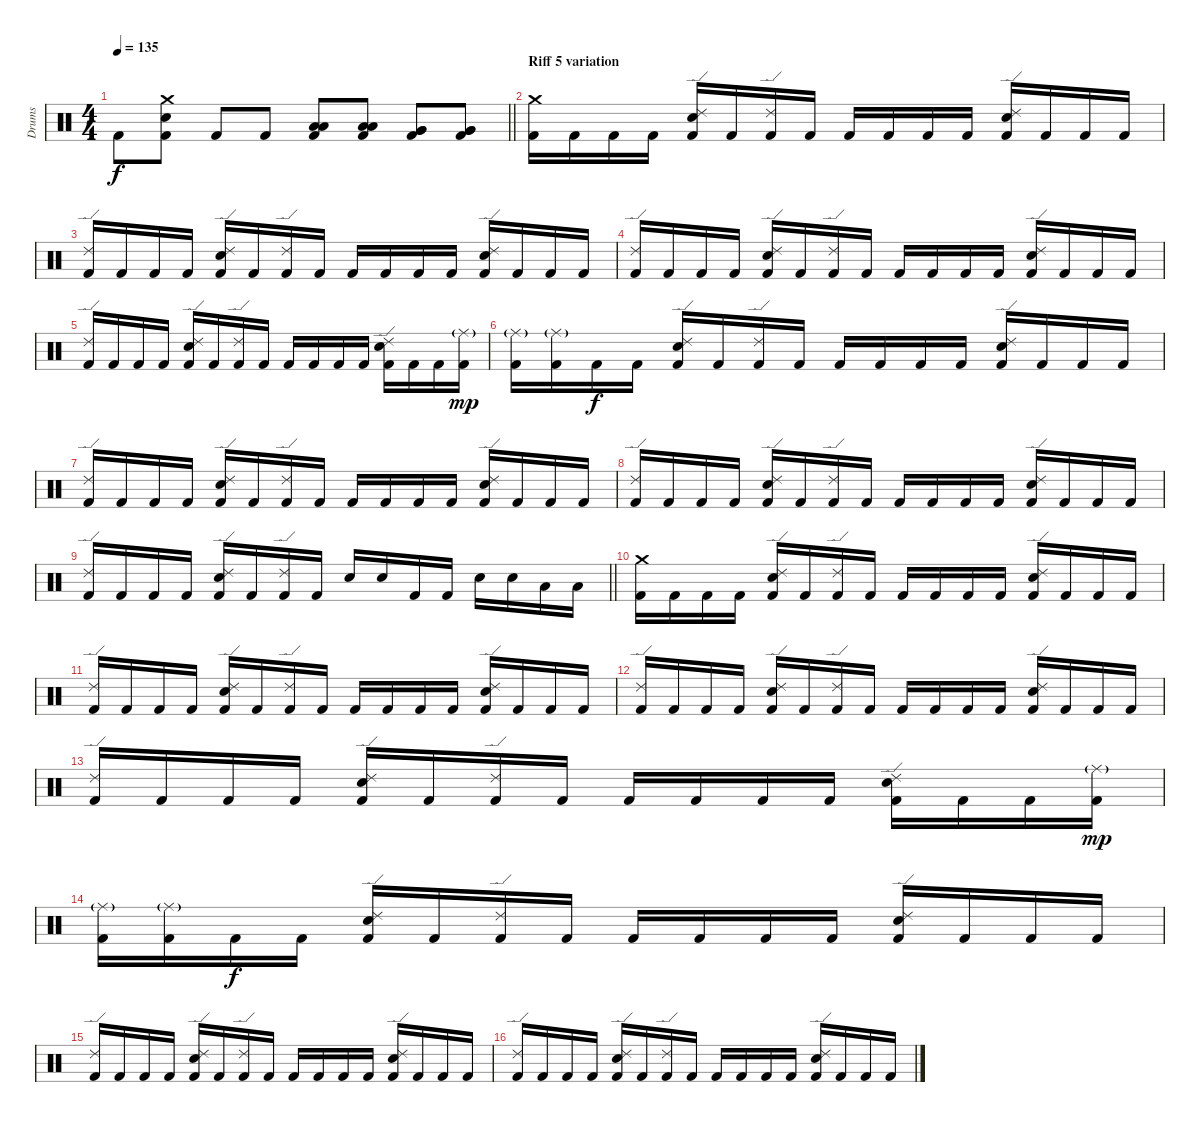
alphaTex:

\track ("Drums" "Drums") {instrument percussion}
\staff {score}
\articulation defaults
\ts (4 4)
\tempo 135
\clef neutral
\barLineRight lightlight
\ks c "Kick (hit) 2".8{dy f}
("Kick (hit) 2" "Snare (hit) 2" "Crash medium (hit)").8 "Kick (hit) 2".8 "Kick (hit) 2".8 ("Kick (hit) 2" "Low Tom (hit)" "Low Tom (hit)").8 ("Kick (hit) 2" "Low Tom (hit)" "Low Tom (hit)").8 ("Kick (hit) 2" "Very Low Tom (hit)" "Very Low Tom (hit)").8 ("Kick (hit) 2" "Very Low Tom (hit)" "Very Low Tom (hit)").8 |
\section ("" "Riff 5 variation")
("Kick (hit) 2" "Crash medium (hit)").16 "Kick (hit) 2".16 "Kick (hit) 2".16 "Kick (hit) 2".16 ("Kick (hit) 2" "Snare (hit) 2" "Ride (edge) 2").16 "Kick (hit) 2".16 ("Kick (hit) 2" "Ride (edge) 2").16 "Kick (hit) 2".16 "Kick (hit) 2".16 "Kick (hit) 2".16 "Kick (hit) 2".16 "Kick (hit) 2".16 ("Kick (hit) 2" "Snare (hit) 2" "Ride (edge) 2").16 "Kick (hit) 2".16 "Kick (hit) 2".16 "Kick (hit) 2".16 |
("Kick (hit) 2" "Ride (edge) 2").16 "Kick (hit) 2".16 "Kick (hit) 2".16 "Kick (hit) 2".16 ("Kick (hit) 2" "Snare (hit) 2" "Ride (edge) 2").16 "Kick (hit) 2".16 ("Kick (hit) 2" "Ride (edge) 2").16 "Kick (hit) 2".16 "Kick (hit) 2".16 "Kick (hit) 2".16 "Kick (hit) 2".16 "Kick (hit) 2".16 ("Kick (hit) 2" "Snare (hit) 2" "Ride (edge) 2").16 "Kick (hit) 2".16 "Kick (hit) 2".16 "Kick (hit) 2".16 |
("Kick (hit) 2" "Ride (edge) 2").16 "Kick (hit) 2".16 "Kick (hit) 2".16 "Kick (hit) 2".16 ("Kick (hit) 2" "Snare (hit) 2" "Ride (edge) 2").16 "Kick (hit) 2".16 ("Kick (hit) 2" "Ride (edge) 2").16 "Kick (hit) 2".16 "Kick (hit) 2".16 "Kick (hit) 2".16 "Kick (hit) 2".16 "Kick (hit) 2".16 ("Kick (hit) 2" "Snare (hit) 2" "Ride (edge) 2").16 "Kick (hit) 2".16 "Kick (hit) 2".16 "Kick (hit) 2".16 |
("Kick (hit) 2" "Ride (edge) 2").16 "Kick (hit) 2".16 "Kick (hit) 2".16 "Kick (hit) 2".16 ("Kick (hit) 2" "Snare (hit) 2" "Ride (edge) 2").16 "Kick (hit) 2".16 ("Kick (hit) 2" "Ride (edge) 2").16 "Kick (hit) 2".16 "Kick (hit) 2".16 "Kick (hit) 2".16 "Kick (hit) 2".16 "Kick (hit) 2".16 ("Kick (hit) 2" "Snare (hit) 2" "Ride (edge) 2").16 "Kick (hit) 2".16 "Kick (hit) 2".16 ("Kick (hit) 2" "Ride (middle)"{g}).16{dy mp} |
("Kick (hit) 2" "Ride (middle)"{g}).16 ("Kick (hit) 2" "Ride (middle)"{g}).16 "Kick (hit) 2".16{dy f} "Kick (hit) 2".16 ("Kick (hit) 2" "Snare (hit) 2" "Ride (edge) 2").16 "Kick (hit) 2".16 ("Kick (hit) 2" "Ride (edge) 2").16 "Kick (hit) 2".16 "Kick (hit) 2".16 "Kick (hit) 2".16 "Kick (hit) 2".16 "Kick (hit) 2".16 ("Kick (hit) 2" "Snare (hit) 2" "Ride (edge) 2").16 "Kick (hit) 2".16 "Kick (hit) 2".16 "Kick (hit) 2".16 |
("Kick (hit) 2" "Ride (edge) 2").16 "Kick (hit) 2".16 "Kick (hit) 2".16 "Kick (hit) 2".16 ("Kick (hit) 2" "Snare (hit) 2" "Ride (edge) 2").16 "Kick (hit) 2".16 ("Kick (hit) 2" "Ride (edge) 2").16 "Kick (hit) 2".16 "Kick (hit) 2".16 "Kick (hit) 2".16 "Kick (hit) 2".16 "Kick (hit) 2".16 ("Kick (hit) 2" "Snare (hit) 2" "Ride (edge) 2").16 "Kick (hit) 2".16 "Kick (hit) 2".16 "Kick (hit) 2".16 |
("Kick (hit) 2" "Ride (edge) 2").16 "Kick (hit) 2".16 "Kick (hit) 2".16 "Kick (hit) 2".16 ("Kick (hit) 2" "Snare (hit) 2" "Ride (edge) 2").16 "Kick (hit) 2".16 ("Kick (hit) 2" "Ride (edge) 2").16 "Kick (hit) 2".16 "Kick (hit) 2".16 "Kick (hit) 2".16 "Kick (hit) 2".16 "Kick (hit) 2".16 ("Kick (hit) 2" "Snare (hit) 2" "Ride (edge) 2").16 "Kick (hit) 2".16 "Kick (hit) 2".16 "Kick (hit) 2".16 |
\barLineRight lightlight
("Kick (hit) 2" "Ride (edge) 2").16 "Kick (hit) 2".16 "Kick (hit) 2".16 "Kick (hit) 2".16 ("Kick (hit) 2" "Snare (hit) 2" "Ride (edge) 2").16 "Kick (hit) 2".16 ("Kick (hit) 2" "Ride (edge) 2").16 "Kick (hit) 2".16 "Snare (hit) 2".16 "Snare (hit) 2".16 "Kick (hit) 2".16 "Kick (hit) 2".16 "Snare (hit) 2".16 "Snare (hit) 2".16 "Low Tom (hit)".16 "Low Tom (hit)".16 |
\section ("" "")
("Kick (hit) 2" "Crash medium (hit)").16 "Kick (hit) 2".16 "Kick (hit) 2".16 "Kick (hit) 2".16 ("Kick (hit) 2" "Snare (hit) 2" "Ride (edge) 2").16 "Kick (hit) 2".16 ("Kick (hit) 2" "Ride (edge) 2").16 "Kick (hit) 2".16 "Kick (hit) 2".16 "Kick (hit) 2".16 "Kick (hit) 2".16 "Kick (hit) 2".16 ("Kick (hit) 2" "Snare (hit) 2" "Ride (edge) 2").16 "Kick (hit) 2".16 "Kick (hit) 2".16 "Kick (hit) 2".16 |
("Kick (hit) 2" "Ride (edge) 2").16 "Kick (hit) 2".16 "Kick (hit) 2".16 "Kick (hit) 2".16 ("Kick (hit) 2" "Snare (hit) 2" "Ride (edge) 2").16 "Kick (hit) 2".16 ("Kick (hit) 2" "Ride (edge) 2").16 "Kick (hit) 2".16 "Kick (hit) 2".16 "Kick (hit) 2".16 "Kick (hit) 2".16 "Kick (hit) 2".16 ("Kick (hit) 2" "Snare (hit) 2" "Ride (edge) 2").16 "Kick (hit) 2".16 "Kick (hit) 2".16 "Kick (hit) 2".16 |
("Kick (hit) 2" "Ride (edge) 2").16 "Kick (hit) 2".16 "Kick (hit) 2".16 "Kick (hit) 2".16 ("Kick (hit) 2" "Snare (hit) 2" "Ride (edge) 2").16 "Kick (hit) 2".16 ("Kick (hit) 2" "Ride (edge) 2").16 "Kick (hit) 2".16 "Kick (hit) 2".16 "Kick (hit) 2".16 "Kick (hit) 2".16 "Kick (hit) 2".16 ("Kick (hit) 2" "Snare (hit) 2" "Ride (edge) 2").16 "Kick (hit) 2".16 "Kick (hit) 2".16 "Kick (hit) 2".16 |
("Kick (hit) 2" "Ride (edge) 2").16 "Kick (hit) 2".16 "Kick (hit) 2".16 "Kick (hit) 2".16 ("Kick (hit) 2" "Snare (hit) 2" "Ride (edge) 2").16 "Kick (hit) 2".16 ("Kick (hit) 2" "Ride (edge) 2").16 "Kick (hit) 2".16 "Kick (hit) 2".16 "Kick (hit) 2".16 "Kick (hit) 2".16 "Kick (hit) 2".16 ("Kick (hit) 2" "Snare (hit) 2" "Ride (edge) 2").16 "Kick (hit) 2".16 "Kick (hit) 2".16 ("Kick (hit) 2" "Ride (middle)"{g}).16{dy mp} |
("Kick (hit) 2" "Ride (middle)"{g}).16 ("Kick (hit) 2" "Ride (middle)"{g}).16 "Kick (hit) 2".16{dy f} "Kick (hit) 2".16 ("Kick (hit) 2" "Snare (hit) 2" "Ride (edge) 2").16 "Kick (hit) 2".16 ("Kick (hit) 2" "Ride (edge) 2").16 "Kick (hit) 2".16 "Kick (hit) 2".16 "Kick (hit) 2".16 "Kick (hit) 2".16 "Kick (hit) 2".16 ("Kick (hit) 2" "Snare (hit) 2" "Ride (edge) 2").16 "Kick (hit) 2".16 "Kick (hit) 2".16 "Kick (hit) 2".16 |
("Kick (hit) 2" "Ride (edge) 2").16 "Kick (hit) 2".16 "Kick (hit) 2".16 "Kick (hit) 2".16 ("Kick (hit) 2" "Snare (hit) 2" "Ride (edge) 2").16 "Kick (hit) 2".16 ("Kick (hit) 2" "Ride (edge) 2").16 "Kick (hit) 2".16 "Kick (hit) 2".16 "Kick (hit) 2".16 "Kick (hit) 2".16 "Kick (hit) 2".16 ("Kick (hit) 2" "Snare (hit) 2" "Ride (edge) 2").16 "Kick (hit) 2".16 "Kick (hit) 2".16 "Kick (hit) 2".16 |
("Kick (hit) 2" "Ride (edge) 2").16 "Kick (hit) 2".16 "Kick (hit) 2".16 "Kick (hit) 2".16 ("Kick (hit) 2" "Snare (hit) 2" "Ride (edge) 2").16 "Kick (hit) 2".16 ("Kick (hit) 2" "Ride (edge) 2").16 "Kick (hit) 2".16 "Kick (hit) 2".16 "Kick (hit) 2".16 "Kick (hit) 2".16 "Kick (hit) 2".16 ("Kick (hit) 2" "Snare (hit) 2" "Ride (edge) 2").16 "Kick (hit) 2".16 "Kick (hit) 2".16 "Kick (hit) 2".16
